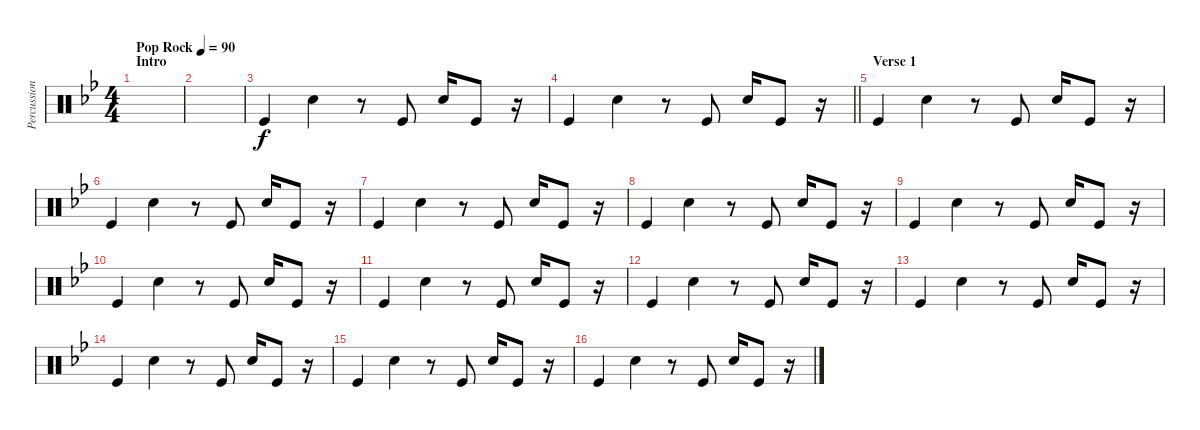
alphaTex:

\track ("Percussion" "Percussion") {instrument percussion}
\staff {score}
\articulation defaults
\ts (4 4)
\section ("" "Intro")
\tempo (90 "Pop Rock")
\clef neutral
\ks bb
|
|
"Kick (hit)".4 "Electric Snare (hit)".4 r.8 "Kick (hit)".8 "Electric Snare (hit)".16 "Kick (hit)".8 r.16 |
\barLineRight lightlight "Kick (hit)".4 "Electric Snare (hit)".4
r.8 "Kick (hit)".8 "Electric Snare (hit)".16 "Kick (hit)".8 r.16 |
\section ("" "Verse 1")
"Kick (hit)".4 "Electric Snare (hit)".4 r.8 "Kick (hit)".8 "Electric Snare (hit)".16 "Kick (hit)".8 r.16 |
"Kick (hit)".4 "Electric Snare (hit)".4 r.8 "Kick (hit)".8 "Electric Snare (hit)".16 "Kick (hit)".8 r.16 |
"Kick (hit)".4 "Electric Snare (hit)".4 r.8 "Kick (hit)".8 "Electric Snare (hit)".16 "Kick (hit)".8 r.16 |
"Kick (hit)".4 "Electric Snare (hit)".4 r.8 "Kick (hit)".8 "Electric Snare (hit)".16 "Kick (hit)".8 r.16 |
"Kick (hit)".4 "Electric Snare (hit)".4 r.8 "Kick (hit)".8 "Electric Snare (hit)".16 "Kick (hit)".8 r.16 |
"Kick (hit)".4 "Electric Snare (hit)".4 r.8 "Kick (hit)".8 "Electric Snare (hit)".16 "Kick (hit)".8 r.16 |
"Kick (hit)".4 "Electric Snare (hit)".4 r.8 "Kick (hit)".8 "Electric Snare (hit)".16 "Kick (hit)".8 r.16 |
"Kick (hit)".4 "Electric Snare (hit)".4 r.8 "Kick (hit)".8 "Electric Snare (hit)".16 "Kick (hit)".8 r.16 |
"Kick (hit)".4 "Electric Snare (hit)".4 r.8 "Kick (hit)".8 "Electric Snare (hit)".16 "Kick (hit)".8 r.16 |
"Kick (hit)".4 "Electric Snare (hit)".4 r.8 "Kick (hit)".8 "Electric Snare (hit)".16 "Kick (hit)".8 r.16 |
"Kick (hit)".4 "Electric Snare (hit)".4 r.8 "Kick (hit)".8 "Electric Snare (hit)".16 "Kick (hit)".8 r.16 |
"Kick (hit)".4 "Electric Snare (hit)".4 r.8 "Kick (hit)".8 "Electric Snare (hit)".16 "Kick (hit)".8 r.16
